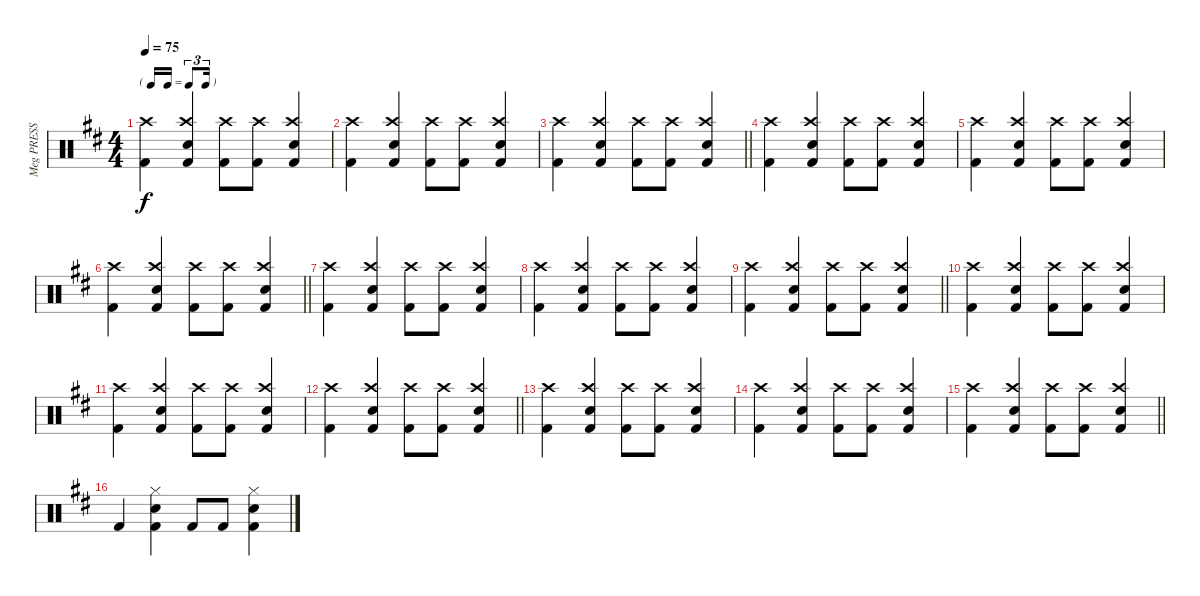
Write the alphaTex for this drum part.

\track ("Meg PRESS F5!!" "Meg PRESS ") {instrument percussion}
\staff {score}
\articulation defaults
\ts (4 4)
\tf triplet16th
\tempo 75
\clef neutral
\ks d
("Kick (hit) 2" "Crash high (hit)").4{dy f} ("Kick (hit) 2" "Crash high (hit)" "Snare (hit) 2").4 ("Kick (hit) 2" "Crash high (hit)").8 ("Kick (hit) 2" "Crash high (hit)").8 ("Kick (hit) 2" "Crash high (hit)" "Snare (hit) 2").4 |
("Kick (hit) 2" "Crash high (hit)").4 ("Kick (hit) 2" "Crash high (hit)" "Snare (hit) 2").4 ("Kick (hit) 2" "Crash high (hit)").8 ("Kick (hit) 2" "Crash high (hit)").8 ("Kick (hit) 2" "Crash high (hit)" "Snare (hit) 2").4 |
\barLineRight lightlight
("Kick (hit) 2" "Crash high (hit)").4 ("Kick (hit) 2" "Crash high (hit)" "Snare (hit) 2").4 ("Kick (hit) 2" "Crash high (hit)").8 ("Kick (hit) 2" "Crash high (hit)").8 ("Kick (hit) 2" "Crash high (hit)" "Snare (hit) 2").4 |
("Kick (hit) 2" "Crash high (hit)").4 ("Kick (hit) 2" "Crash high (hit)" "Snare (hit) 2").4 ("Kick (hit) 2" "Crash high (hit)").8 ("Kick (hit) 2" "Crash high (hit)").8 ("Kick (hit) 2" "Crash high (hit)" "Snare (hit) 2").4 |
("Kick (hit) 2" "Crash high (hit)").4 ("Kick (hit) 2" "Crash high (hit)" "Snare (hit) 2").4 ("Kick (hit) 2" "Crash high (hit)").8 ("Kick (hit) 2" "Crash high (hit)").8 ("Kick (hit) 2" "Crash high (hit)" "Snare (hit) 2").4 |
\barLineRight lightlight
("Kick (hit) 2" "Crash high (hit)").4 ("Kick (hit) 2" "Crash high (hit)" "Snare (hit) 2").4 ("Kick (hit) 2" "Crash high (hit)").8 ("Kick (hit) 2" "Crash high (hit)").8 ("Kick (hit) 2" "Crash high (hit)" "Snare (hit) 2").4 |
("Kick (hit) 2" "Crash high (hit)").4 ("Kick (hit) 2" "Crash high (hit)" "Snare (hit) 2").4 ("Kick (hit) 2" "Crash high (hit)").8 ("Kick (hit) 2" "Crash high (hit)").8 ("Kick (hit) 2" "Crash high (hit)" "Snare (hit) 2").4 |
("Kick (hit) 2" "Crash high (hit)").4 ("Kick (hit) 2" "Crash high (hit)" "Snare (hit) 2").4 ("Kick (hit) 2" "Crash high (hit)").8 ("Kick (hit) 2" "Crash high (hit)").8 ("Kick (hit) 2" "Crash high (hit)" "Snare (hit) 2").4 |
\barLineRight lightlight
("Kick (hit) 2" "Crash high (hit)").4 ("Kick (hit) 2" "Crash high (hit)" "Snare (hit) 2").4 ("Kick (hit) 2" "Crash high (hit)").8 ("Kick (hit) 2" "Crash high (hit)").8 ("Kick (hit) 2" "Crash high (hit)" "Snare (hit) 2").4 |
("Kick (hit) 2" "Crash high (hit)").4 ("Kick (hit) 2" "Crash high (hit)" "Snare (hit) 2").4 ("Kick (hit) 2" "Crash high (hit)").8 ("Kick (hit) 2" "Crash high (hit)").8 ("Kick (hit) 2" "Crash high (hit)" "Snare (hit) 2").4 |
("Kick (hit) 2" "Crash high (hit)").4 ("Kick (hit) 2" "Crash high (hit)" "Snare (hit) 2").4 ("Kick (hit) 2" "Crash high (hit)").8 ("Kick (hit) 2" "Crash high (hit)").8 ("Kick (hit) 2" "Crash high (hit)" "Snare (hit) 2").4 |
\barLineRight lightlight
("Kick (hit) 2" "Crash high (hit)").4 ("Kick (hit) 2" "Crash high (hit)" "Snare (hit) 2").4 ("Kick (hit) 2" "Crash high (hit)").8 ("Kick (hit) 2" "Crash high (hit)").8 ("Kick (hit) 2" "Crash high (hit)" "Snare (hit) 2").4 |
("Kick (hit) 2" "Crash high (hit)").4 ("Kick (hit) 2" "Crash high (hit)" "Snare (hit) 2").4 ("Kick (hit) 2" "Crash high (hit)").8 ("Kick (hit) 2" "Crash high (hit)").8 ("Kick (hit) 2" "Crash high (hit)" "Snare (hit) 2").4 |
("Kick (hit) 2" "Crash high (hit)").4 ("Kick (hit) 2" "Crash high (hit)" "Snare (hit) 2").4 ("Kick (hit) 2" "Crash high (hit)").8 ("Kick (hit) 2" "Crash high (hit)").8 ("Kick (hit) 2" "Crash high (hit)" "Snare (hit) 2").4 |
\barLineRight lightlight
("Kick (hit) 2" "Crash high (hit)").4 ("Kick (hit) 2" "Crash high (hit)" "Snare (hit) 2").4 ("Kick (hit) 2" "Crash high (hit)").8 ("Kick (hit) 2" "Crash high (hit)").8 ("Kick (hit) 2" "Crash high (hit)" "Snare (hit) 2").4 |
"Kick (hit) 2".4 ("Kick (hit) 2" "Hi-Hat (closed)" "Snare (hit) 2").4 "Kick (hit) 2".8 "Kick (hit) 2".8 ("Kick (hit) 2" "Hi-Hat (closed)" "Snare (hit) 2").4
